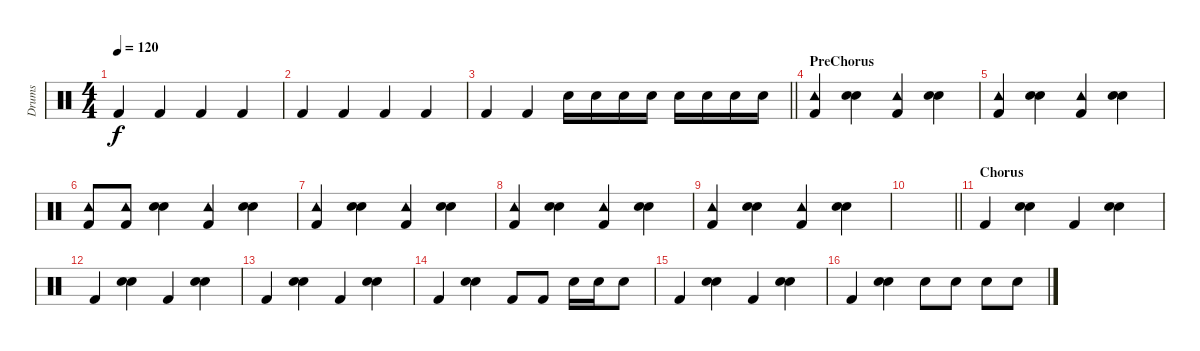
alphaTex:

\track ("Drums" "Drums") {instrument percussion}
\staff {score}
\articulation defaults
\ts (4 4)
\tempo 120
\clef neutral
\ks c "Kick (hit) 2".4{dy f} "Kick (hit) 2".4 "Kick (hit) 2".4 "Kick (hit) 2".4
|
"Kick (hit) 2".4 "Kick (hit) 2".4 "Kick (hit) 2".4 "Kick (hit) 2".4 |
\barLineRight lightlight "Kick (hit) 2".4 "Kick (hit) 2".4 "Snare (hit) 2".16 "Snare (hit) 2".16 "Snare (hit) 2".16 "Snare (hit) 2".16 "Electric Snare (hit)".16 "Electric Snare (hit)".16 "Electric Snare (hit)".16 "Electric Snare (hit)".16
|
\section ("" "PreChorus")
("Tambourine (hit)" "Kick (hit) 2").4 ("Electric Snare (hit)" "Snare (hit) 2").4 ("Tambourine (hit)" "Kick (hit) 2").4 ("Electric Snare (hit)" "Snare (hit) 2").4 |
("Tambourine (hit)" "Kick (hit) 2").4 ("Electric Snare (hit)" "Snare (hit) 2").4 ("Tambourine (hit)" "Kick (hit) 2").4 ("Electric Snare (hit)" "Snare (hit) 2").4 |
("Tambourine (hit)" "Kick (hit) 2").8 ("Tambourine (hit)" "Kick (hit) 2").8 ("Electric Snare (hit)" "Snare (hit) 2").4 ("Tambourine (hit)" "Kick (hit) 2").4 ("Electric Snare (hit)" "Snare (hit) 2").4 |
("Tambourine (hit)" "Kick (hit) 2").4 ("Electric Snare (hit)" "Snare (hit) 2").4 ("Tambourine (hit)" "Kick (hit) 2").4 ("Electric Snare (hit)" "Snare (hit) 2").4 |
("Tambourine (hit)" "Kick (hit) 2").4 ("Electric Snare (hit)" "Snare (hit) 2").4 ("Tambourine (hit)" "Kick (hit) 2").4 ("Electric Snare (hit)" "Snare (hit) 2").4 |
("Tambourine (hit)" "Kick (hit) 2").4 ("Electric Snare (hit)" "Snare (hit) 2").4 ("Tambourine (hit)" "Kick (hit) 2").4 ("Electric Snare (hit)" "Snare (hit) 2").4 |
\barLineRight lightlight
|
\section ("" "Chorus")
"Kick (hit) 2".4 ("Electric Snare (hit)" "Snare (hit) 2").4 "Kick (hit) 2".4 ("Electric Snare (hit)" "Snare (hit) 2").4 |
"Kick (hit) 2".4 ("Electric Snare (hit)" "Snare (hit) 2").4 "Kick (hit) 2".4 ("Electric Snare (hit)" "Snare (hit) 2").4 |
"Kick (hit) 2".4 ("Electric Snare (hit)" "Snare (hit) 2").4 "Kick (hit) 2".4 ("Electric Snare (hit)" "Snare (hit) 2").4 |
"Kick (hit) 2".4 ("Electric Snare (hit)" "Snare (hit) 2").4 "Kick (hit) 2".8 "Kick (hit) 2".8 "Electric Snare (hit)".16 "Electric Snare (hit)".16 "Snare (hit) 2".8 |
"Kick (hit) 2".4 ("Electric Snare (hit)" "Snare (hit) 2").4 "Kick (hit) 2".4 ("Electric Snare (hit)" "Snare (hit) 2").4 |
"Kick (hit) 2".4 ("Electric Snare (hit)" "Snare (hit) 2").4 "Snare (hit) 2".8 "Snare (hit) 2".8 "Snare (hit) 2".8 "Snare (hit) 2".8
